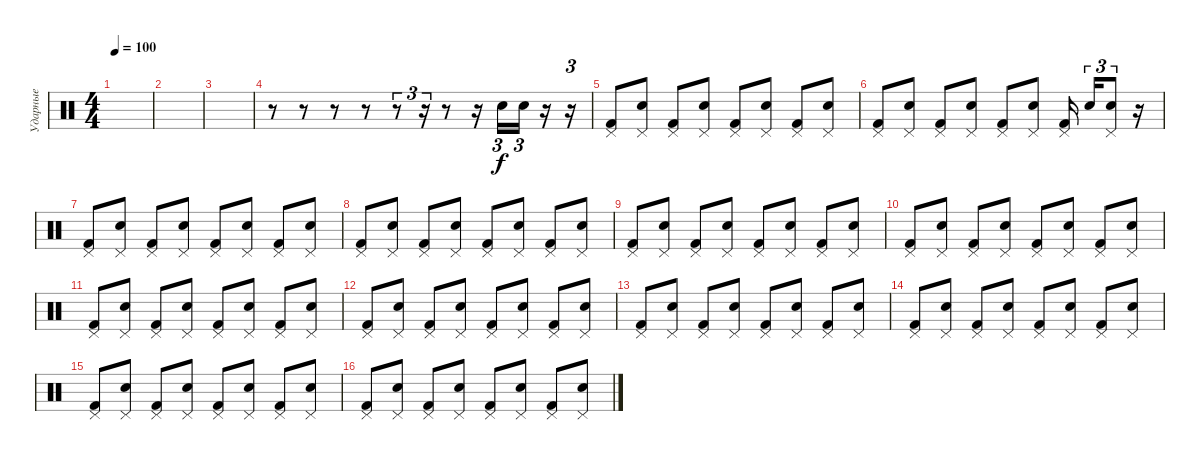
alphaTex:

\track ("Ударные" "Ударные") {instrument percussion}
\staff {score}
\articulation defaults
\ts (4 4)
\tempo 100
\clef neutral
\ks c
|
|
|
r.8 r.8 r.8 r.8 r.8{tu (3 2)} r.16{tu (3 2)} r.8 r.16 "Electric Snare (hit)".16{tu (3 2)} "Electric Snare (hit)".16{tu (3 2)} r.16 r.16{tu (3 2)} |
("Pedal Hi-Hat (hit)" "Kick (hit) 2").8 ("Pedal Hi-Hat (hit)" "Electric Snare (hit)").8 ("Pedal Hi-Hat (hit)" "Kick (hit) 2").8 ("Pedal Hi-Hat (hit)" "Electric Snare (hit)").8 ("Pedal Hi-Hat (hit)" "Kick (hit) 2").8 ("Pedal Hi-Hat (hit)" "Electric Snare (hit)").8 ("Pedal Hi-Hat (hit)" "Kick (hit) 2").8 ("Pedal Hi-Hat (hit)" "Electric Snare (hit)").8 |
("Pedal Hi-Hat (hit)" "Kick (hit) 2").8 ("Pedal Hi-Hat (hit)" "Electric Snare (hit)").8 ("Pedal Hi-Hat (hit)" "Kick (hit) 2").8 ("Pedal Hi-Hat (hit)" "Electric Snare (hit)").8 ("Pedal Hi-Hat (hit)" "Kick (hit) 2").8 ("Pedal Hi-Hat (hit)" "Electric Snare (hit)").8 ("Pedal Hi-Hat (hit)" "Kick (hit) 2").16{beam splitsecondary} "Electric Snare (hit)".16{tu (3 2)} ("Pedal Hi-Hat (hit)" "Electric Snare (hit)").8{tu (3 2)} r.16 |
("Pedal Hi-Hat (hit)" "Kick (hit) 2").8 ("Pedal Hi-Hat (hit)" "Electric Snare (hit)").8 ("Pedal Hi-Hat (hit)" "Kick (hit) 2").8 ("Pedal Hi-Hat (hit)" "Electric Snare (hit)").8 ("Pedal Hi-Hat (hit)" "Kick (hit) 2").8 ("Pedal Hi-Hat (hit)" "Electric Snare (hit)").8 ("Pedal Hi-Hat (hit)" "Kick (hit) 2").8 ("Pedal Hi-Hat (hit)" "Electric Snare (hit)").8 |
("Pedal Hi-Hat (hit)" "Kick (hit) 2").8 ("Pedal Hi-Hat (hit)" "Electric Snare (hit)").8 ("Pedal Hi-Hat (hit)" "Kick (hit) 2").8 ("Pedal Hi-Hat (hit)" "Electric Snare (hit)").8 ("Pedal Hi-Hat (hit)" "Kick (hit) 2").8 ("Pedal Hi-Hat (hit)" "Electric Snare (hit)").8 ("Pedal Hi-Hat (hit)" "Kick (hit) 2").8 ("Pedal Hi-Hat (hit)" "Electric Snare (hit)").8 |
("Pedal Hi-Hat (hit)" "Kick (hit) 2").8 ("Pedal Hi-Hat (hit)" "Electric Snare (hit)").8 ("Pedal Hi-Hat (hit)" "Kick (hit) 2").8 ("Pedal Hi-Hat (hit)" "Electric Snare (hit)").8 ("Pedal Hi-Hat (hit)" "Kick (hit) 2").8 ("Pedal Hi-Hat (hit)" "Electric Snare (hit)").8 ("Pedal Hi-Hat (hit)" "Kick (hit) 2").8 ("Pedal Hi-Hat (hit)" "Electric Snare (hit)").8 |
("Pedal Hi-Hat (hit)" "Kick (hit) 2").8 ("Pedal Hi-Hat (hit)" "Electric Snare (hit)").8 ("Pedal Hi-Hat (hit)" "Kick (hit) 2").8 ("Pedal Hi-Hat (hit)" "Electric Snare (hit)").8 ("Pedal Hi-Hat (hit)" "Kick (hit) 2").8 ("Pedal Hi-Hat (hit)" "Electric Snare (hit)").8 ("Pedal Hi-Hat (hit)" "Kick (hit) 2").8 ("Pedal Hi-Hat (hit)" "Electric Snare (hit)").8 |
("Pedal Hi-Hat (hit)" "Kick (hit) 2").8 ("Pedal Hi-Hat (hit)" "Electric Snare (hit)").8 ("Pedal Hi-Hat (hit)" "Kick (hit) 2").8 ("Pedal Hi-Hat (hit)" "Electric Snare (hit)").8 ("Pedal Hi-Hat (hit)" "Kick (hit) 2").8 ("Pedal Hi-Hat (hit)" "Electric Snare (hit)").8 ("Pedal Hi-Hat (hit)" "Kick (hit) 2").8 ("Pedal Hi-Hat (hit)" "Electric Snare (hit)").8 |
("Pedal Hi-Hat (hit)" "Kick (hit) 2").8 ("Pedal Hi-Hat (hit)" "Electric Snare (hit)").8 ("Pedal Hi-Hat (hit)" "Kick (hit) 2").8 ("Pedal Hi-Hat (hit)" "Electric Snare (hit)").8 ("Pedal Hi-Hat (hit)" "Kick (hit) 2").8 ("Pedal Hi-Hat (hit)" "Electric Snare (hit)").8 ("Pedal Hi-Hat (hit)" "Kick (hit) 2").8 ("Pedal Hi-Hat (hit)" "Electric Snare (hit)").8 |
("Pedal Hi-Hat (hit)" "Kick (hit) 2").8 ("Pedal Hi-Hat (hit)" "Electric Snare (hit)").8 ("Pedal Hi-Hat (hit)" "Kick (hit) 2").8 ("Pedal Hi-Hat (hit)" "Electric Snare (hit)").8 ("Pedal Hi-Hat (hit)" "Kick (hit) 2").8 ("Pedal Hi-Hat (hit)" "Electric Snare (hit)").8 ("Pedal Hi-Hat (hit)" "Kick (hit) 2").8 ("Pedal Hi-Hat (hit)" "Electric Snare (hit)").8 |
("Pedal Hi-Hat (hit)" "Kick (hit) 2").8 ("Pedal Hi-Hat (hit)" "Electric Snare (hit)").8 ("Pedal Hi-Hat (hit)" "Kick (hit) 2").8 ("Pedal Hi-Hat (hit)" "Electric Snare (hit)").8 ("Pedal Hi-Hat (hit)" "Kick (hit) 2").8 ("Pedal Hi-Hat (hit)" "Electric Snare (hit)").8 ("Pedal Hi-Hat (hit)" "Kick (hit) 2").8 ("Pedal Hi-Hat (hit)" "Electric Snare (hit)").8 |
("Pedal Hi-Hat (hit)" "Kick (hit) 2").8 ("Pedal Hi-Hat (hit)" "Electric Snare (hit)").8 ("Pedal Hi-Hat (hit)" "Kick (hit) 2").8 ("Pedal Hi-Hat (hit)" "Electric Snare (hit)").8 ("Pedal Hi-Hat (hit)" "Kick (hit) 2").8 ("Pedal Hi-Hat (hit)" "Electric Snare (hit)").8 ("Pedal Hi-Hat (hit)" "Kick (hit) 2").8 ("Pedal Hi-Hat (hit)" "Electric Snare (hit)").8 |
("Pedal Hi-Hat (hit)" "Kick (hit) 2").8 ("Pedal Hi-Hat (hit)" "Electric Snare (hit)").8 ("Pedal Hi-Hat (hit)" "Kick (hit) 2").8 ("Pedal Hi-Hat (hit)" "Electric Snare (hit)").8 ("Pedal Hi-Hat (hit)" "Kick (hit) 2").8 ("Pedal Hi-Hat (hit)" "Electric Snare (hit)").8 ("Pedal Hi-Hat (hit)" "Kick (hit) 2").8 ("Pedal Hi-Hat (hit)" "Electric Snare (hit)").8
